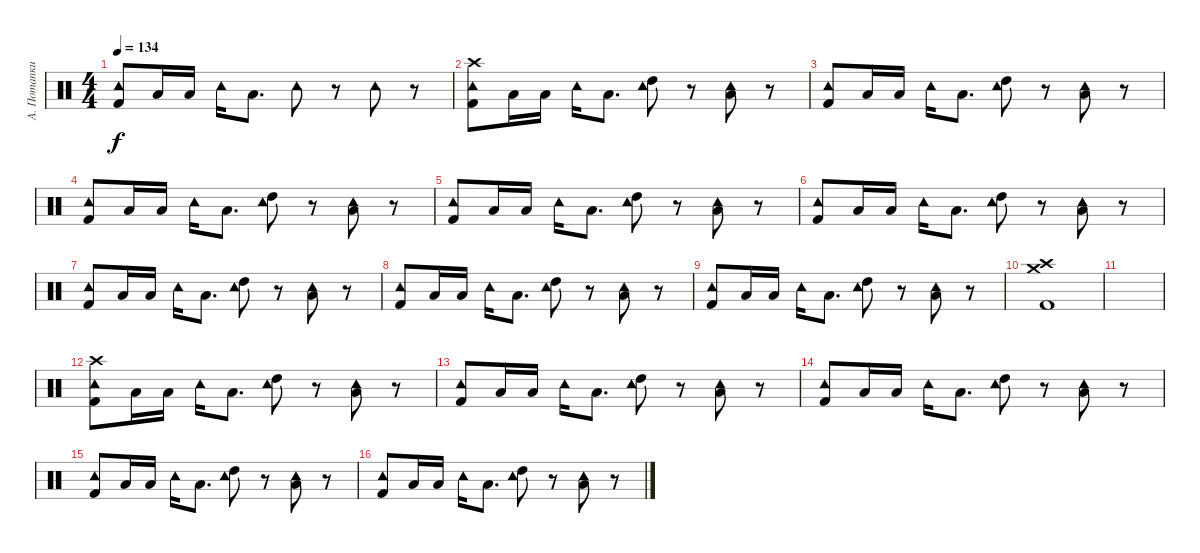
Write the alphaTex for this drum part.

\track ("А. Потапкин" "А. Потапки") {instrument percussion}
\staff {score}
\articulation defaults
\ts (4 4)
\tempo 134
\clef neutral
\ks c
("Tambourine (hit)" "Kick (hit) 2").8{dy f} "Low Tom (hit)".16 "Low Tom (hit)".16 "Tambourine (hit)".16 "Low Tom (hit)".8{d} "Tambourine (hit)".8 r.8 "Tambourine (hit)".8 r.8 |
("Crash high (hit)" "Tambourine (hit)" "Kick (hit) 2").8 "Low Tom (hit)".16 "Low Tom (hit)".16 "Tambourine (hit)".16 "Low Tom (hit)".8{d} ("Tambourine (hit)" "High Tom (hit)").8 r.8 ("Tambourine (hit)" "Low Tom (hit)").8 r.8 |
("Tambourine (hit)" "Kick (hit) 2").8 "Low Tom (hit)".16 "Low Tom (hit)".16 "Tambourine (hit)".16 "Low Tom (hit)".8{d} ("Tambourine (hit)" "High Tom (hit)").8 r.8 ("Tambourine (hit)" "Low Tom (hit)").8 r.8 |
("Tambourine (hit)" "Kick (hit) 2").8 "Low Tom (hit)".16 "Low Tom (hit)".16 "Tambourine (hit)".16 "Low Tom (hit)".8{d} ("Tambourine (hit)" "High Tom (hit)").8 r.8 ("Tambourine (hit)" "Low Tom (hit)").8 r.8 |
("Tambourine (hit)" "Kick (hit) 2").8 "Low Tom (hit)".16 "Low Tom (hit)".16 "Tambourine (hit)".16 "Low Tom (hit)".8{d} ("Tambourine (hit)" "High Tom (hit)").8 r.8 ("Tambourine (hit)" "Low Tom (hit)").8 r.8 |
("Tambourine (hit)" "Kick (hit) 2").8 "Low Tom (hit)".16 "Low Tom (hit)".16 "Tambourine (hit)".16 "Low Tom (hit)".8{d} ("Tambourine (hit)" "High Tom (hit)").8 r.8 ("Tambourine (hit)" "Low Tom (hit)").8 r.8 |
("Tambourine (hit)" "Kick (hit) 2").8 "Low Tom (hit)".16 "Low Tom (hit)".16 "Tambourine (hit)".16 "Low Tom (hit)".8{d} ("Tambourine (hit)" "High Tom (hit)").8 r.8 ("Tambourine (hit)" "Low Tom (hit)").8 r.8 |
("Tambourine (hit)" "Kick (hit) 2").8 "Low Tom (hit)".16 "Low Tom (hit)".16 "Tambourine (hit)".16 "Low Tom (hit)".8{d} ("Tambourine (hit)" "High Tom (hit)").8 r.8 ("Tambourine (hit)" "Low Tom (hit)").8 r.8 |
("Tambourine (hit)" "Kick (hit) 2").8 "Low Tom (hit)".16 "Low Tom (hit)".16 "Tambourine (hit)".16 "Low Tom (hit)".8{d} ("Tambourine (hit)" "High Tom (hit)").8 r.8 ("Tambourine (hit)" "Low Tom (hit)").8 r.8 |
("Crash high (hit)" "Crash medium (hit)" "Kick (hit) 2").1 |
|
("Crash high (hit)" "Tambourine (hit)" "Kick (hit) 2").8 "Low Tom (hit)".16 "Low Tom (hit)".16 "Tambourine (hit)".16 "Low Tom (hit)".8{d} ("Tambourine (hit)" "High Tom (hit)").8 r.8 ("Tambourine (hit)" "Low Tom (hit)").8 r.8 |
("Tambourine (hit)" "Kick (hit) 2").8 "Low Tom (hit)".16 "Low Tom (hit)".16 "Tambourine (hit)".16 "Low Tom (hit)".8{d} ("Tambourine (hit)" "High Tom (hit)").8 r.8 ("Tambourine (hit)" "Low Tom (hit)").8 r.8 |
("Tambourine (hit)" "Kick (hit) 2").8 "Low Tom (hit)".16 "Low Tom (hit)".16 "Tambourine (hit)".16 "Low Tom (hit)".8{d} ("Tambourine (hit)" "High Tom (hit)").8 r.8 ("Tambourine (hit)" "Low Tom (hit)").8 r.8 |
("Tambourine (hit)" "Kick (hit) 2").8 "Low Tom (hit)".16 "Low Tom (hit)".16 "Tambourine (hit)".16 "Low Tom (hit)".8{d} ("Tambourine (hit)" "High Tom (hit)").8 r.8 ("Tambourine (hit)" "Low Tom (hit)").8 r.8 |
("Tambourine (hit)" "Kick (hit) 2").8 "Low Tom (hit)".16 "Low Tom (hit)".16 "Tambourine (hit)".16 "Low Tom (hit)".8{d} ("Tambourine (hit)" "High Tom (hit)").8 r.8 ("Tambourine (hit)" "Low Tom (hit)").8 r.8
